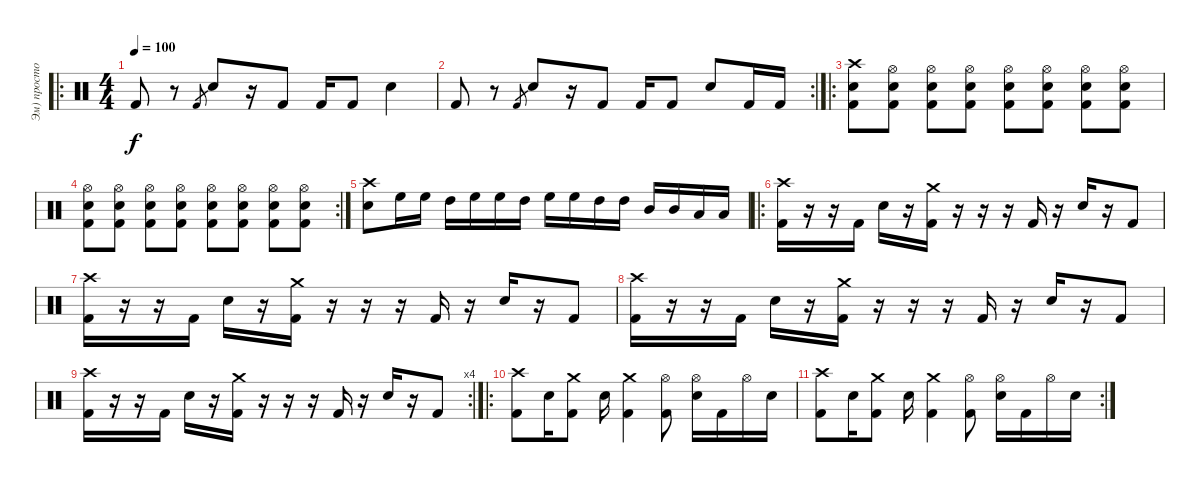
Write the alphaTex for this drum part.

\track ("Эм) просто Артемий" "Эм) просто") {instrument percussion}
\staff {score}
\articulation defaults
\ro
\ts (4 4)
\tempo 100
\clef neutral
\ks c "Kick (hit) 2".8{dy f}
r.8 "Kick (hit) 2".8{gr} "Snare (hit) 2".8 r.16 "Kick (hit) 2".8 "Kick (hit) 2".16 "Kick (hit) 2".8 "Snare (hit) 2".4 |
\rc 2 "Kick (hit) 2".8
r.8 "Kick (hit) 2".8{gr} "Snare (hit) 2".8 r.16 "Kick (hit) 2".8 "Kick (hit) 2".16 "Kick (hit) 2".8 "Snare (hit) 2".8 "Kick (hit) 2".16 "Kick (hit) 2".16 |
\ro
("Crash high (hit)" "Snare (hit) 2" "Kick (hit) 2").8 ("Hi-Hat (open)" "Snare (hit) 2" "Kick (hit) 2").8 ("Hi-Hat (open)" "Snare (hit) 2" "Kick (hit) 2").8 ("Hi-Hat (open)" "Snare (hit) 2" "Kick (hit) 2").8 ("Hi-Hat (open)" "Snare (hit) 2" "Kick (hit) 2").8 ("Hi-Hat (open)" "Snare (hit) 2" "Kick (hit) 2").8 ("Hi-Hat (open)" "Snare (hit) 2" "Kick (hit) 2").8 ("Hi-Hat (open)" "Snare (hit) 2" "Kick (hit) 2").8 |
\rc 2
("Hi-Hat (open)" "Snare (hit) 2" "Kick (hit) 2").8 ("Hi-Hat (open)" "Snare (hit) 2" "Kick (hit) 2").8 ("Hi-Hat (open)" "Snare (hit) 2" "Kick (hit) 2").8 ("Hi-Hat (open)" "Snare (hit) 2" "Kick (hit) 2").8 ("Hi-Hat (open)" "Snare (hit) 2" "Kick (hit) 2").8 ("Hi-Hat (open)" "Snare (hit) 2" "Kick (hit) 2").8 ("Hi-Hat (open)" "Snare (hit) 2" "Kick (hit) 2").8 ("Hi-Hat (open)" "Snare (hit) 2" "Kick (hit) 2").8 |
("Crash high (hit)" "Snare (hit) 2").8 "High Floor Tom (hit)".16 "High Floor Tom (hit)".16 "High Tom (hit)".16 "High Floor Tom (hit)".16 "High Floor Tom (hit)".16 "High Tom (hit)".16 "High Floor Tom (hit)".16 "High Floor Tom (hit)".16 "High Tom (hit)".16 "High Tom (hit)".16 "Mid Tom (hit)".16 "Mid Tom (hit)".16 "Low Tom (hit)".16 "Low Tom (hit)".16 |
\ro
("Crash high (hit)" "Kick (hit) 2").16 r.16 r.16 "Kick (hit) 2".16 "Snare (hit) 2".16 r.16 ("Crash medium (hit)" "Kick (hit) 2").16 r.16 r.16 r.16 "Kick (hit) 2".16 r.16 "Snare (hit) 2".16 r.16 "Kick (hit) 2".8 |
("Crash high (hit)" "Kick (hit) 2").16 r.16 r.16 "Kick (hit) 2".16 "Snare (hit) 2".16 r.16 ("Crash medium (hit)" "Kick (hit) 2").16 r.16 r.16 r.16 "Kick (hit) 2".16 r.16 "Snare (hit) 2".16 r.16 "Kick (hit) 2".8 |
("Crash high (hit)" "Kick (hit) 2").16 r.16 r.16 "Kick (hit) 2".16 "Snare (hit) 2".16 r.16 ("Crash medium (hit)" "Kick (hit) 2").16 r.16 r.16 r.16 "Kick (hit) 2".16 r.16 "Snare (hit) 2".16 r.16 "Kick (hit) 2".8 |
\rc 4
("Crash high (hit)" "Kick (hit) 2").16 r.16 r.16 "Kick (hit) 2".16 "Snare (hit) 2".16 r.16 ("Crash medium (hit)" "Kick (hit) 2").16 r.16 r.16 r.16 "Kick (hit) 2".16 r.16 "Snare (hit) 2".16 r.16 "Kick (hit) 2".8 |
\ro
("Crash high (hit)" "Kick (hit) 2").8 "Snare (hit) 2".16 ("Crash medium (hit)" "Kick (hit) 2").8 "Snare (hit) 2".16 ("Crash medium (hit)" "Kick (hit) 2").4 ("Hi-Hat (open)" "Kick (hit) 2").8 ("Hi-Hat (open)" "Snare (hit) 2").16 "Kick (hit) 2".16 "Hi-Hat (open)".16 "Snare (hit) 2".16 |
\rc 2
("Crash high (hit)" "Kick (hit) 2").8 "Snare (hit) 2".16 ("Crash medium (hit)" "Kick (hit) 2").8 "Snare (hit) 2".16 ("Crash medium (hit)" "Kick (hit) 2").4 ("Hi-Hat (open)" "Kick (hit) 2").8 ("Hi-Hat (open)" "Snare (hit) 2").16 "Kick (hit) 2".16 "Hi-Hat (open)".16 "Snare (hit) 2".16
